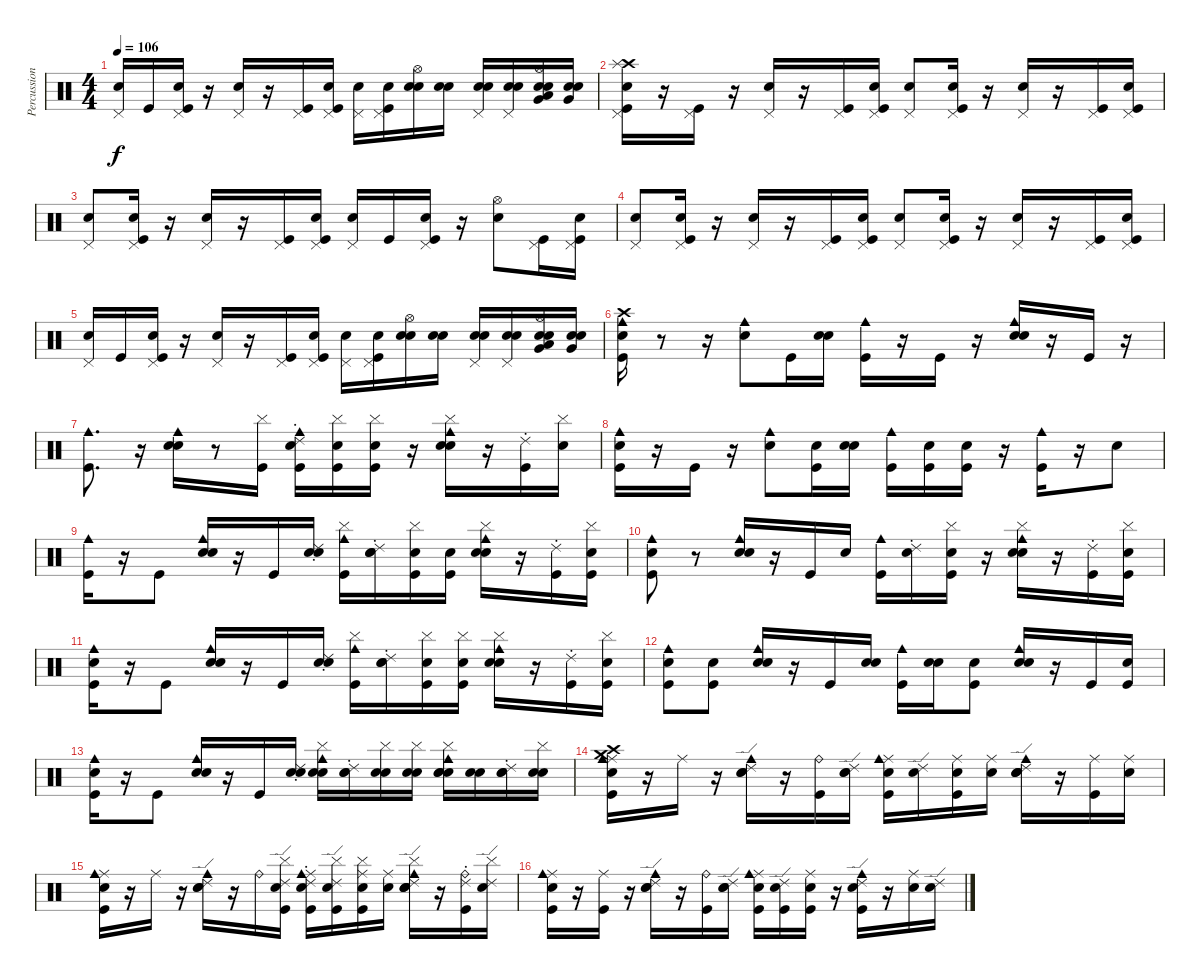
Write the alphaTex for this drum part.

\track ("Percussions (Zaac)" "Percussion") {instrument percussion}
\staff {score}
\articulation defaults
\ts (4 4)
\tempo 106
\clef neutral
\ks c
("Snare (hit)" "Pedal Hi-Hat (hit)").16{dy f} "Kick (hit)".16 ("Snare (hit)" "Kick (hit)" "Pedal Hi-Hat (hit)").16 r.16 ("Electric Snare (hit)" "Pedal Hi-Hat (hit)").16 r.16 ("Kick (hit)" "Pedal Hi-Hat (hit)").16 ("Snare (hit)" "Kick (hit)" "Pedal Hi-Hat (hit)").16 ("Snare (hit)" "Pedal Hi-Hat (hit)").16 ("Snare (hit)" "Kick (hit)" "Pedal Hi-Hat (hit)").16 ("Snare (hit)" "Electric Snare (hit)" "Hi-Hat (open)").16 ("Snare (hit)" "Electric Snare (hit)").16 ("Snare (hit)" "Electric Snare (hit)" "Pedal Hi-Hat (hit)").16 ("Snare (hit)" "Electric Snare (hit)" "Pedal Hi-Hat (hit)").16 ("Snare (hit)" "Electric Snare (hit)" "Very Low Tom (hit)" "Low Tom (hit)" "Hi-Hat (open)").16 ("Snare (hit)" "Electric Snare (hit)" "Very Low Tom (hit)").16 |
("Snare (hit)" "Kick (hit)" "Pedal Hi-Hat (hit)" "Crash high (hit)" "Splash (hit)").16 r.16 ("Kick (hit)" "Pedal Hi-Hat (hit)").16 r.16 ("Electric Snare (hit)" "Pedal Hi-Hat (hit)").16 r.16 ("Kick (hit)" "Pedal Hi-Hat (hit)").16 ("Snare (hit)" "Kick (hit)" "Pedal Hi-Hat (hit)").16 ("Snare (hit)" "Pedal Hi-Hat (hit)").8 ("Snare (hit)" "Kick (hit)" "Pedal Hi-Hat (hit)").16 r.16 ("Electric Snare (hit)" "Pedal Hi-Hat (hit)").16 r.16 ("Kick (hit)" "Pedal Hi-Hat (hit)").16 ("Snare (hit)" "Kick (hit)" "Pedal Hi-Hat (hit)").16 |
("Snare (hit)" "Pedal Hi-Hat (hit)").8 ("Snare (hit)" "Kick (hit)" "Pedal Hi-Hat (hit)").16 r.16 ("Electric Snare (hit)" "Pedal Hi-Hat (hit)").16 r.16 ("Kick (hit)" "Pedal Hi-Hat (hit)").16 ("Snare (hit)" "Kick (hit)" "Pedal Hi-Hat (hit)").16 ("Snare (hit)" "Pedal Hi-Hat (hit)").16 "Kick (hit)".16 ("Snare (hit)" "Kick (hit)" "Pedal Hi-Hat (hit)").16 r.16 ("Electric Snare (hit)" "Hi-Hat (open)").8 ("Kick (hit)" "Pedal Hi-Hat (hit)").16 ("Snare (hit)" "Kick (hit)" "Pedal Hi-Hat (hit)").16 |
("Snare (hit)" "Pedal Hi-Hat (hit)").8 ("Snare (hit)" "Kick (hit)" "Pedal Hi-Hat (hit)").16 r.16 ("Electric Snare (hit)" "Pedal Hi-Hat (hit)").16 r.16 ("Kick (hit)" "Pedal Hi-Hat (hit)").16 ("Snare (hit)" "Kick (hit)" "Pedal Hi-Hat (hit)").16 ("Snare (hit)" "Pedal Hi-Hat (hit)").8 ("Snare (hit)" "Kick (hit)" "Pedal Hi-Hat (hit)").16 r.16 ("Electric Snare (hit)" "Pedal Hi-Hat (hit)").16 r.16 ("Kick (hit)" "Pedal Hi-Hat (hit)").16 ("Snare (hit)" "Kick (hit)" "Pedal Hi-Hat (hit)").16 |
("Snare (hit)" "Pedal Hi-Hat (hit)").16 "Kick (hit)".16 ("Snare (hit)" "Kick (hit)" "Pedal Hi-Hat (hit)").16 r.16 ("Electric Snare (hit)" "Pedal Hi-Hat (hit)").16 r.16 ("Kick (hit)" "Pedal Hi-Hat (hit)").16 ("Snare (hit)" "Kick (hit)" "Pedal Hi-Hat (hit)").16 ("Snare (hit)" "Pedal Hi-Hat (hit)").16 ("Snare (hit)" "Kick (hit)" "Pedal Hi-Hat (hit)").16 ("Snare (hit)" "Electric Snare (hit)" "Hi-Hat (open)").16 ("Snare (hit)" "Electric Snare (hit)").16 ("Snare (hit)" "Electric Snare (hit)" "Pedal Hi-Hat (hit)").16 ("Snare (hit)" "Electric Snare (hit)" "Pedal Hi-Hat (hit)").16 ("Snare (hit)" "Electric Snare (hit)" "Very Low Tom (hit)" "Low Tom (hit)" "Hi-Hat (open)").16 ("Snare (hit)" "Electric Snare (hit)" "Very Low Tom (hit)").16 |
("Snare (hit)" "Kick (hit)" "Crash high (hit)" "Cowbell medium (hit)").16 r.8 r.16 ("Electric Snare (hit)" "Cowbell medium (hit)").8 "Kick (hit)".16 ("Snare (hit)" "Electric Snare (hit)").16 ("Kick (hit)" "Cowbell medium (hit)").16 r.16 "Kick (hit)".16 r.16 ("Hand Clap (hit)" "Electric Snare (hit)" "Cowbell medium (hit)").16 r.16 "Kick (hit)".16 r.16 |
("Kick (hit)" "Cowbell medium (hit)").8{d} r.16 ("Hand Clap (hit)" "Electric Snare (hit)" "Cowbell medium (hit)").16 r.8 ("Cymbal (hit)" "Kick (hit)").16 ("Snare (hit)" "Ride (choke) 2" "Kick (hit)" "Cowbell medium (hit)").16 ("Snare (hit)" "Cymbal (hit)" "Kick (hit)").16 ("Snare (hit)" "Cymbal (hit)" "Kick (hit)").16 r.16 ("Hand Clap (hit)" "Cymbal (hit)" "Electric Snare (hit)" "Cowbell medium (hit)").16 r.16 ("Ride (choke) 2" "Kick (hit)").16 ("Snare (hit)" "Cymbal (hit)").16 |
("Snare (hit)" "Kick (hit)" "Cowbell medium (hit)").16 r.16 "Kick (hit)".16 r.16 ("Electric Snare (hit)" "Cowbell medium (hit)").8 ("Snare (hit)" "Kick (hit)").16 ("Snare (hit)" "Electric Snare (hit)").16 ("Kick (hit)" "Cowbell medium (hit)").16 ("Snare (hit)" "Kick (hit)").16 ("Snare (hit)" "Kick (hit)").16 r.16 ("Kick (hit)" "Cowbell medium (hit)").16 r.16 "Electric Snare (hit)".8 |
("Kick (hit)" "Cowbell medium (hit)").16 r.16 "Kick (hit)".8 ("Hand Clap (hit)" "Electric Snare (hit)" "Cowbell medium (hit)").16 r.16 "Kick (hit)".16 ("Snare (hit)" "Ride (choke) 2" "Electric Snare (hit)").16 ("Cymbal (hit)" "Kick (hit)" "Cowbell medium (hit)").16 ("Snare (hit)" "Ride (choke) 2" "Electric Snare (hit)").16 ("Snare (hit)" "Cymbal (hit)" "Kick (hit)").16 ("Snare (hit)" "Kick (hit)").16 ("Hand Clap (hit)" "Cymbal (hit)" "Electric Snare (hit)" "Cowbell medium (hit)").16 r.16 ("Ride (choke) 2" "Kick (hit)").16 ("Snare (hit)" "Cymbal (hit)" "Kick (hit)").16 |
("Snare (hit)" "Kick (hit)" "Cowbell medium (hit)").8 r.8 ("Hand Clap (hit)" "Electric Snare (hit)" "Cowbell medium (hit)").16 r.16 "Kick (hit)".16 "Electric Snare (hit)".16 ("Kick (hit)" "Cowbell medium (hit)").16 ("Snare (hit)" "Ride (choke) 2").16 ("Snare (hit)" "Cymbal (hit)" "Kick (hit)").16 r.16 ("Hand Clap (hit)" "Cymbal (hit)" "Electric Snare (hit)" "Cowbell medium (hit)").16 r.16 ("Ride (choke) 2" "Kick (hit)").16 ("Snare (hit)" "Cymbal (hit)" "Kick (hit)").16 |
("Snare (hit)" "Kick (hit)" "Cowbell medium (hit)").16 r.16 "Kick (hit)".8 ("Hand Clap (hit)" "Electric Snare (hit)" "Cowbell medium (hit)").16 r.16 "Kick (hit)".16 ("Snare (hit)" "Ride (choke) 2" "Electric Snare (hit)").16 ("Cymbal (hit)" "Kick (hit)" "Cowbell medium (hit)").16 ("Snare (hit)" "Ride (choke) 2" "Electric Snare (hit)").16 ("Snare (hit)" "Cymbal (hit)" "Kick (hit)").16 ("Snare (hit)" "Cymbal (hit)" "Kick (hit)").16 ("Hand Clap (hit)" "Cymbal (hit)" "Electric Snare (hit)" "Cowbell medium (hit)").16 r.16 ("Ride (choke) 2" "Kick (hit)").16 ("Snare (hit)" "Cymbal (hit)" "Kick (hit)").16 |
("Snare (hit)" "Kick (hit)" "Cowbell medium (hit)").8 ("Snare (hit)" "Kick (hit)").8 ("Hand Clap (hit)" "Electric Snare (hit)" "Cowbell medium (hit)").16 r.16 "Kick (hit)".16 ("Snare (hit)" "Electric Snare (hit)").16 ("Kick (hit)" "Cowbell medium (hit)").16 ("Snare (hit)" "Electric Snare (hit)").16 ("Snare (hit)" "Kick (hit)").8 ("Hand Clap (hit)" "Electric Snare (hit)" "Cowbell medium (hit)").16 r.16 "Kick (hit)".16 ("Snare (hit)" "Kick (hit)").16 |
("Snare (hit)" "Kick (hit)" "Cowbell medium (hit)").16 r.16 "Kick (hit)".8 ("Hand Clap (hit)" "Electric Snare (hit)" "Cowbell medium (hit)").16 r.16 "Kick (hit)".16 ("Snare (hit)" "Ride (choke) 2" "Electric Snare (hit)").16 ("Snare (hit)" "Cymbal (hit)" "Electric Snare (hit)" "Cowbell medium (hit)").16 ("Snare (hit)" "Ride (choke) 2" "Electric Snare (hit)").16 ("Snare (hit)" "Cymbal (hit)" "Electric Snare (hit)").16 ("Snare (hit)" "Cymbal (hit)" "Electric Snare (hit)").16 ("Snare (hit)" "Hand Clap (hit)" "Cymbal (hit)" "Electric Snare (hit)" "Cowbell medium (hit)").16 ("Snare (hit)" "Electric Snare (hit)").16 ("Snare (hit)" "Ride (choke) 2" "Electric Snare (hit)").16 ("Snare (hit)" "Cymbal (hit)" "Electric Snare (hit)").16 |
("Snare (hit)" "Kick (hit)" "Crash high (hit)" "Ride (middle)" "Cowbell medium (hit)" "Crash medium (hit)").16 r.16 "Ride (middle)".16 r.16 ("Hand Clap (hit)" "Electric Snare (hit)" "Cowbell medium (hit)" "Ride (edge) 2").16 r.16 ("Kick (hit)" "Ride (bell)").16 ("Snare (hit)" "Electric Snare (hit)" "Ride (edge) 2").16 ("Snare (hit)" "Kick (hit)" "Ride (middle)" "Cowbell medium (hit)").16 ("Snare (hit)" "Ride (edge) 2").16 ("Snare (hit)" "Kick (hit)" "Ride (middle)").16 ("Snare (hit)" "Ride (middle)").16 ("Snare (hit)" "Hand Clap (hit)" "Electric Snare (hit)" "Cowbell medium (hit)" "Ride (edge) 2").16 r.16 ("Kick (hit)" "Ride (middle)").16 ("Snare (hit)" "Ride (middle)").16 |
("Snare (hit)" "Kick (hit)" "Ride (middle)" "Cowbell medium (hit)").16 r.16 "Ride (middle)".16 r.16 ("Hand Clap (hit)" "Electric Snare (hit)" "Cowbell medium (hit)" "Ride (edge) 2").16 r.16 "Ride (bell)".16 ("Snare (hit)" "Cymbal (hit)" "Kick (hit)" "Ride (edge) 2").16 ("Snare (hit)" "Ride (choke) 2" "Kick (hit)" "Ride (middle)" "Cowbell medium (hit)").16 ("Snare (hit)" "Cymbal (hit)" "Kick (hit)" "Ride (edge) 2").16 ("Snare (hit)" "Cymbal (hit)" "Kick (hit)" "Ride (middle)").16 ("Snare (hit)" "Ride (middle)").16 ("Snare (hit)" "Hand Clap (hit)" "Cymbal (hit)" "Electric Snare (hit)" "Cowbell medium (hit)" "Ride (edge) 2").16 r.16 ("Ride (choke) 2" "Kick (hit)" "Ride (bell)").16 ("Snare (hit)" "Cymbal (hit)" "Ride (edge) 2").16 |
("Snare (hit)" "Kick (hit)" "Ride (middle)" "Cowbell medium (hit)").16 r.16 ("Kick (hit)" "Ride (middle)").16 r.16 ("Hand Clap (hit)" "Electric Snare (hit)" "Cowbell medium (hit)" "Ride (edge) 2").16 r.16 ("Kick (hit)" "Ride (bell)").16 ("Snare (hit)" "Electric Snare (hit)" "Ride (edge) 2").16 ("Snare (hit)" "Kick (hit)" "Ride (middle)" "Cowbell medium (hit)").16 ("Snare (hit)" "Kick (hit)" "Ride (edge) 2").16 ("Snare (hit)" "Kick (hit)" "Ride (middle)").16 r.16 ("Hand Clap (hit)" "Kick (hit)" "Cowbell medium (hit)" "Ride (edge) 2").16 r.16 ("Electric Snare (hit)" "Ride (middle)").16 ("Snare (hit)" "Ride (edge) 2").16
